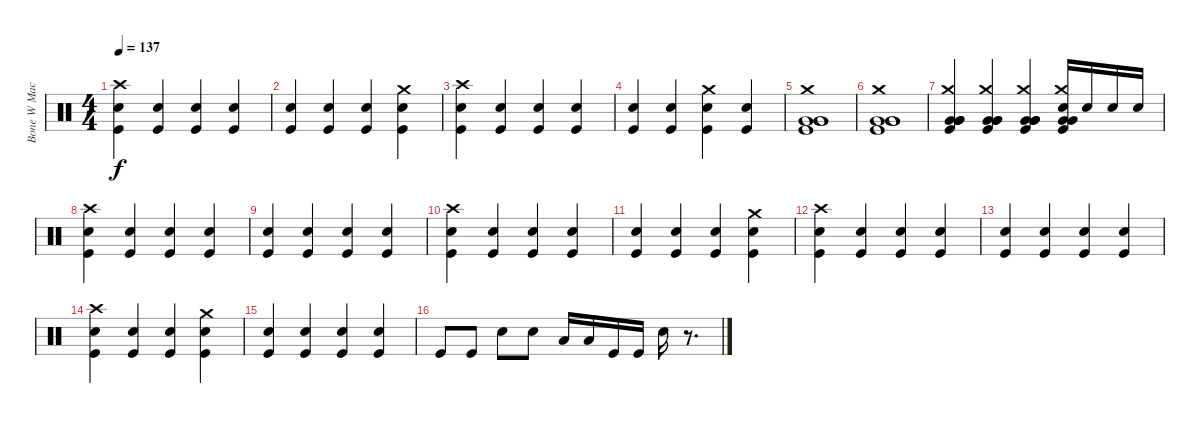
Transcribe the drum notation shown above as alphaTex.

\track ("Bone W Machine Drums" "Bone W Mac") {instrument percussion}
\staff {score}
\articulation defaults
\ts (4 4)
\tempo 137
\clef neutral
\ks c
("Crash high (hit)" "Snare (hit) 2" "Kick (hit)").4{dy f} ("Snare (hit) 2" "Kick (hit)").4 ("Snare (hit) 2" "Kick (hit)").4 ("Snare (hit) 2" "Kick (hit)").4 |
("Snare (hit) 2" "Kick (hit)").4 ("Snare (hit) 2" "Kick (hit)").4 ("Snare (hit) 2" "Kick (hit)").4 ("Crash medium (hit)" "Snare (hit) 2" "Kick (hit)").4 |
("Crash high (hit)" "Snare (hit) 2" "Kick (hit)").4 ("Snare (hit) 2" "Kick (hit)").4 ("Snare (hit) 2" "Kick (hit)").4 ("Snare (hit) 2" "Kick (hit)").4 |
("Snare (hit) 2" "Kick (hit)").4 ("Snare (hit) 2" "Kick (hit)").4 ("Crash medium (hit)" "Snare (hit) 2" "Kick (hit)").4 ("Snare (hit) 2" "Kick (hit)").4 |
("Crash medium (hit)" "Very Low Tom (hit)" "Very Low Tom (hit)" "Very Low Tom (hit)" "Kick (hit)").1 |
("Crash medium (hit)" "Very Low Tom (hit)" "Very Low Tom (hit)" "Very Low Tom (hit)" "Kick (hit)").1 |
("Crash medium (hit)" "Very Low Tom (hit)" "Very Low Tom (hit)" "Very Low Tom (hit)" "Kick (hit)").4 ("Crash medium (hit)" "Very Low Tom (hit)" "Very Low Tom (hit)" "Very Low Tom (hit)" "Kick (hit)").4 ("Crash medium (hit)" "Very Low Tom (hit)" "Very Low Tom (hit)" "Very Low Tom (hit)" "Kick (hit)").4 ("Crash medium (hit)" "Snare (hit) 2" "Very Low Tom (hit)" "Very Low Tom (hit)" "Kick (hit)").16 "Snare (hit) 2".16 "Snare (hit) 2".16 "Snare (hit) 2".16 |
("Crash high (hit)" "Snare (hit) 2" "Kick (hit)").4 ("Snare (hit) 2" "Kick (hit)").4 ("Snare (hit) 2" "Kick (hit)").4 ("Snare (hit) 2" "Kick (hit)").4 |
("Snare (hit) 2" "Kick (hit)").4 ("Snare (hit) 2" "Kick (hit)").4 ("Snare (hit) 2" "Kick (hit)").4 ("Snare (hit) 2" "Kick (hit)").4 |
("Crash high (hit)" "Snare (hit) 2" "Kick (hit)").4 ("Snare (hit) 2" "Kick (hit)").4 ("Snare (hit) 2" "Kick (hit)").4 ("Snare (hit) 2" "Kick (hit)").4 |
("Snare (hit) 2" "Kick (hit)").4 ("Snare (hit) 2" "Kick (hit)").4 ("Snare (hit) 2" "Kick (hit)").4 ("Crash medium (hit)" "Snare (hit) 2" "Kick (hit)").4 |
("Crash high (hit)" "Snare (hit) 2" "Kick (hit)").4 ("Snare (hit) 2" "Kick (hit)").4 ("Snare (hit) 2" "Kick (hit)").4 ("Snare (hit) 2" "Kick (hit)").4 |
("Snare (hit) 2" "Kick (hit)").4 ("Snare (hit) 2" "Kick (hit)").4 ("Snare (hit) 2" "Kick (hit)").4 ("Snare (hit) 2" "Kick (hit)").4 |
("Crash high (hit)" "Snare (hit) 2" "Kick (hit)").4 ("Snare (hit) 2" "Kick (hit)").4 ("Snare (hit) 2" "Kick (hit)").4 ("Crash medium (hit)" "Snare (hit) 2" "Kick (hit)").4 |
("Snare (hit) 2" "Kick (hit)").4 ("Snare (hit) 2" "Kick (hit)").4 ("Snare (hit) 2" "Kick (hit)").4 ("Snare (hit) 2" "Kick (hit)").4 |
"Kick (hit)".8 "Kick (hit)".8 "Snare (hit) 2".8 "Snare (hit) 2".8 "Low Tom (hit)".16 "Low Tom (hit)".16 "Kick (hit)".16 "Kick (hit)".16 "Snare (hit) 2".16 r.8{d}
